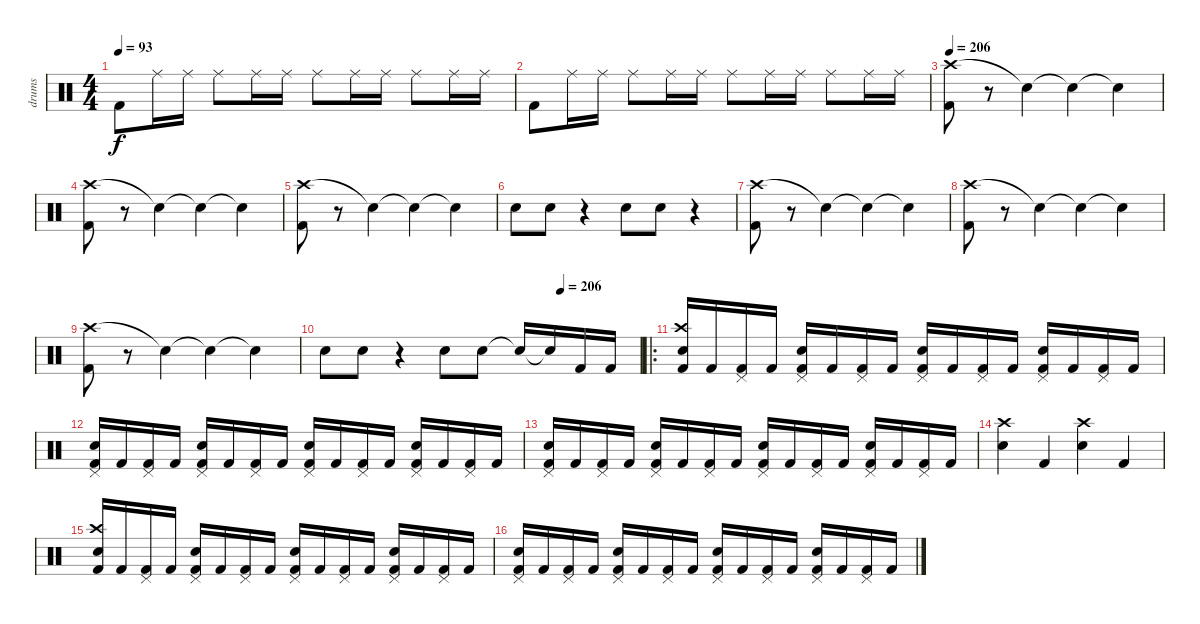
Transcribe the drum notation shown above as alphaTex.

\track ("drums" "drums") {instrument percussion}
\staff {score}
\articulation defaults
\ts (4 4)
\tempo 93
\clef neutral
\ks c "Kick (hit) 2".8{dy f} "Ride (middle)".16 "Ride (middle)".16 "Ride (middle)".8 "Ride (middle)".16 "Ride (middle)".16 "Ride (middle)".8 "Ride (middle)".16 "Ride (middle)".16 "Ride (middle)".8 "Ride (middle)".16 "Ride (middle)".16
|
"Kick (hit) 2".8 "Ride (middle)".16 "Ride (middle)".16 "Ride (middle)".8 "Ride (middle)".16 "Ride (middle)".16 "Ride (middle)".8 "Ride (middle)".16 "Ride (middle)".16 "Ride (middle)".8 "Ride (middle)".16 "Ride (middle)".16 |
\tempo 206
("Crash high (hit)" "Kick (hit) 2").8 r.8 "Snare (hit)"{t}.4 "Snare (hit)"{t}.4 "Snare (hit)"{t}.4 |
("Crash high (hit)" "Kick (hit) 2").8 r.8 "Snare (hit)"{t}.4 "Snare (hit)"{t}.4 "Snare (hit)"{t}.4 |
("Crash high (hit)" "Kick (hit) 2").8 r.8 "Snare (hit)"{t}.4 "Snare (hit)"{t}.4 "Snare (hit)"{t}.4 |
"Electric Snare (hit)".8 "Electric Snare (hit)".8 r.4 "Electric Snare (hit)".8 "Electric Snare (hit)".8 r.4 |
("Crash high (hit)" "Kick (hit) 2").8 r.8 "Snare (hit)"{t}.4 "Snare (hit)"{t}.4 "Snare (hit)"{t}.4 |
("Crash high (hit)" "Kick (hit) 2").8 r.8 "Snare (hit)"{t}.4 "Snare (hit)"{t}.4 "Snare (hit)"{t}.4 |
("Crash high (hit)" "Kick (hit) 2").8 r.8 "Snare (hit)"{t}.4 "Snare (hit)"{t}.4 "Snare (hit)"{t}.4 |
\tempo (210 0.75)
\tempo (206 0.75)
"Electric Snare (hit)".8 "Electric Snare (hit)".8 r.4 "Electric Snare (hit)".8 "Electric Snare (hit)".8 "Snare (hit)"{t}.16 "Snare (hit)"{t}.16 "Kick (hit) 2".16 "Kick (hit) 2".16 |
\ro
("Kick (hit) 2" "Electric Snare (hit)" "Crash high (hit)").16 "Kick (hit) 2".16 ("Kick (hit) 2" "Pedal Hi-Hat (hit)").16 "Kick (hit) 2".16 ("Kick (hit) 2" "Electric Snare (hit)" "Pedal Hi-Hat (hit)").16 "Kick (hit) 2".16 ("Kick (hit) 2" "Pedal Hi-Hat (hit)").16 "Kick (hit) 2".16 ("Kick (hit) 2" "Electric Snare (hit)" "Pedal Hi-Hat (hit)").16 "Kick (hit) 2".16 ("Kick (hit) 2" "Pedal Hi-Hat (hit)").16 "Kick (hit) 2".16 ("Kick (hit) 2" "Electric Snare (hit)" "Pedal Hi-Hat (hit)").16 "Kick (hit) 2".16 ("Kick (hit) 2" "Pedal Hi-Hat (hit)").16 "Kick (hit) 2".16 |
("Kick (hit) 2" "Electric Snare (hit)" "Pedal Hi-Hat (hit)").16 "Kick (hit) 2".16 ("Kick (hit) 2" "Pedal Hi-Hat (hit)").16 "Kick (hit) 2".16 ("Kick (hit) 2" "Electric Snare (hit)" "Pedal Hi-Hat (hit)").16 "Kick (hit) 2".16 ("Kick (hit) 2" "Pedal Hi-Hat (hit)").16 "Kick (hit) 2".16 ("Kick (hit) 2" "Electric Snare (hit)" "Pedal Hi-Hat (hit)").16 "Kick (hit) 2".16 ("Kick (hit) 2" "Pedal Hi-Hat (hit)").16 "Kick (hit) 2".16 ("Kick (hit) 2" "Electric Snare (hit)" "Pedal Hi-Hat (hit)").16 "Kick (hit) 2".16 ("Kick (hit) 2" "Pedal Hi-Hat (hit)").16 "Kick (hit) 2".16 |
("Kick (hit) 2" "Electric Snare (hit)" "Pedal Hi-Hat (hit)").16 "Kick (hit) 2".16 ("Kick (hit) 2" "Pedal Hi-Hat (hit)").16 "Kick (hit) 2".16 ("Kick (hit) 2" "Electric Snare (hit)" "Pedal Hi-Hat (hit)").16 "Kick (hit) 2".16 ("Kick (hit) 2" "Pedal Hi-Hat (hit)").16 "Kick (hit) 2".16 ("Kick (hit) 2" "Electric Snare (hit)" "Pedal Hi-Hat (hit)").16 "Kick (hit) 2".16 ("Kick (hit) 2" "Pedal Hi-Hat (hit)").16 "Kick (hit) 2".16 ("Kick (hit) 2" "Electric Snare (hit)" "Pedal Hi-Hat (hit)").16 "Kick (hit) 2".16 ("Kick (hit) 2" "Pedal Hi-Hat (hit)").16 "Kick (hit) 2".16 |
("Electric Snare (hit)" "Crash high (hit)").4 "Kick (hit) 2".4 ("Electric Snare (hit)" "Crash high (hit)").4 "Kick (hit) 2".4 |
("Kick (hit) 2" "Electric Snare (hit)" "Crash high (hit)").16 "Kick (hit) 2".16 ("Kick (hit) 2" "Pedal Hi-Hat (hit)").16 "Kick (hit) 2".16 ("Kick (hit) 2" "Electric Snare (hit)" "Pedal Hi-Hat (hit)").16 "Kick (hit) 2".16 ("Kick (hit) 2" "Pedal Hi-Hat (hit)").16 "Kick (hit) 2".16 ("Kick (hit) 2" "Electric Snare (hit)" "Pedal Hi-Hat (hit)").16 "Kick (hit) 2".16 ("Kick (hit) 2" "Pedal Hi-Hat (hit)").16 "Kick (hit) 2".16 ("Kick (hit) 2" "Electric Snare (hit)" "Pedal Hi-Hat (hit)").16 "Kick (hit) 2".16 ("Kick (hit) 2" "Pedal Hi-Hat (hit)").16 "Kick (hit) 2".16 |
("Kick (hit) 2" "Electric Snare (hit)" "Pedal Hi-Hat (hit)").16 "Kick (hit) 2".16 ("Kick (hit) 2" "Pedal Hi-Hat (hit)").16 "Kick (hit) 2".16 ("Kick (hit) 2" "Electric Snare (hit)" "Pedal Hi-Hat (hit)").16 "Kick (hit) 2".16 ("Kick (hit) 2" "Pedal Hi-Hat (hit)").16 "Kick (hit) 2".16 ("Kick (hit) 2" "Electric Snare (hit)" "Pedal Hi-Hat (hit)").16 "Kick (hit) 2".16 ("Kick (hit) 2" "Pedal Hi-Hat (hit)").16 "Kick (hit) 2".16 ("Kick (hit) 2" "Electric Snare (hit)" "Pedal Hi-Hat (hit)").16 "Kick (hit) 2".16 ("Kick (hit) 2" "Pedal Hi-Hat (hit)").16 "Kick (hit) 2".16
